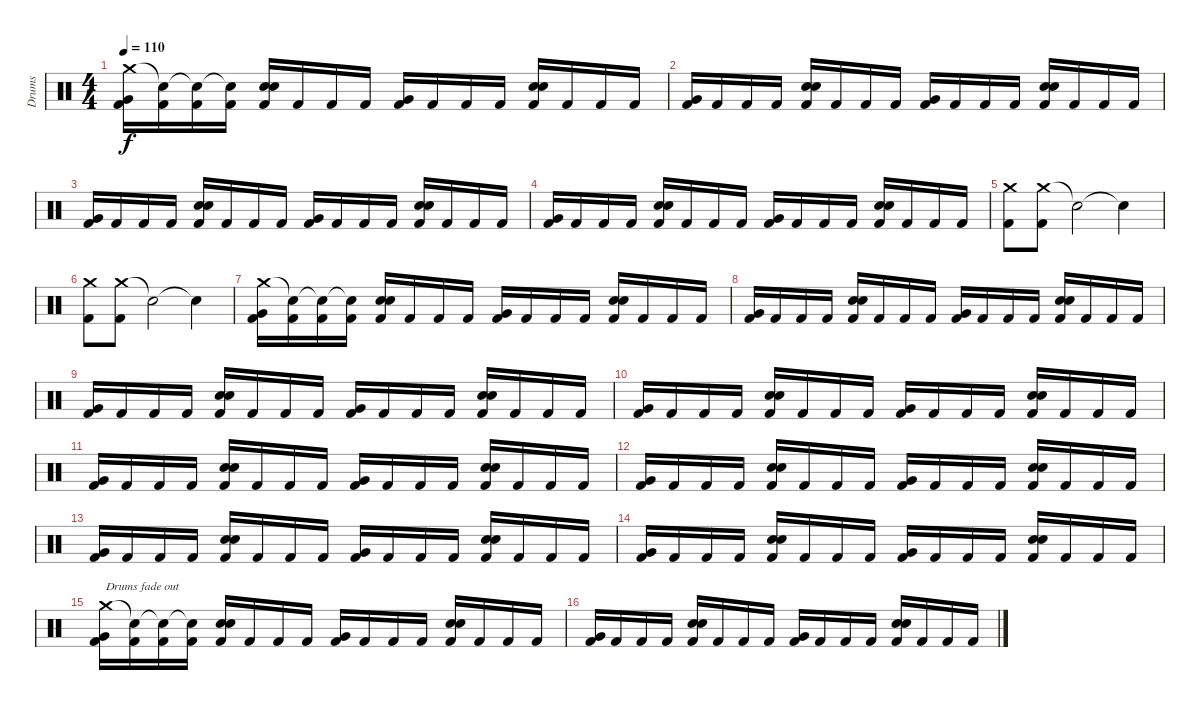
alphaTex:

\track ("Drums" "Drums") {instrument percussion}
\staff {score}
\articulation defaults
\ts (4 4)
\tempo 110
\clef neutral
\ks c
("Crash medium (hit)" "Very Low Tom (hit)" "Kick (hit) 2").16{dy f} ("Snare (hit)"{t} "Kick (hit) 2").16 ("Snare (hit)"{t} "Kick (hit) 2").16 ("Snare (hit)"{t} "Kick (hit) 2").16 ("Electric Snare (hit)" "Electric Snare (hit)" "Kick (hit) 2").16 "Kick (hit) 2".16 "Kick (hit) 2".16 "Kick (hit) 2".16 ("Very Low Tom (hit)" "Kick (hit) 2").16 "Kick (hit) 2".16 "Kick (hit) 2".16 "Kick (hit) 2".16 ("Electric Snare (hit)" "Electric Snare (hit)" "Kick (hit) 2").16 "Kick (hit) 2".16 "Kick (hit) 2".16 "Kick (hit) 2".16 |
("Very Low Tom (hit)" "Kick (hit) 2").16 "Kick (hit) 2".16 "Kick (hit) 2".16 "Kick (hit) 2".16 ("Electric Snare (hit)" "Electric Snare (hit)" "Kick (hit) 2").16 "Kick (hit) 2".16 "Kick (hit) 2".16 "Kick (hit) 2".16 ("Very Low Tom (hit)" "Kick (hit) 2").16 "Kick (hit) 2".16 "Kick (hit) 2".16 "Kick (hit) 2".16 ("Electric Snare (hit)" "Electric Snare (hit)" "Kick (hit) 2").16 "Kick (hit) 2".16 "Kick (hit) 2".16 "Kick (hit) 2".16 |
("Very Low Tom (hit)" "Kick (hit) 2").16 "Kick (hit) 2".16 "Kick (hit) 2".16 "Kick (hit) 2".16 ("Electric Snare (hit)" "Electric Snare (hit)" "Kick (hit) 2").16 "Kick (hit) 2".16 "Kick (hit) 2".16 "Kick (hit) 2".16 ("Very Low Tom (hit)" "Kick (hit) 2").16 "Kick (hit) 2".16 "Kick (hit) 2".16 "Kick (hit) 2".16 ("Electric Snare (hit)" "Electric Snare (hit)" "Kick (hit) 2").16 "Kick (hit) 2".16 "Kick (hit) 2".16 "Kick (hit) 2".16 |
("Very Low Tom (hit)" "Kick (hit) 2").16 "Kick (hit) 2".16 "Kick (hit) 2".16 "Kick (hit) 2".16 ("Electric Snare (hit)" "Electric Snare (hit)" "Kick (hit) 2").16 "Kick (hit) 2".16 "Kick (hit) 2".16 "Kick (hit) 2".16 ("Very Low Tom (hit)" "Kick (hit) 2").16 "Kick (hit) 2".16 "Kick (hit) 2".16 "Kick (hit) 2".16 ("Electric Snare (hit)" "Electric Snare (hit)" "Kick (hit) 2").16 "Kick (hit) 2".16 "Kick (hit) 2".16 "Kick (hit) 2".16 |
("Crash medium (hit)" "Kick (hit) 2").8 ("Crash medium (hit)" "Kick (hit) 2").8 "Snare (hit)"{t}.2 "Snare (hit)"{t}.4 |
("Crash medium (hit)" "Kick (hit) 2").8 ("Crash medium (hit)" "Kick (hit) 2").8 "Snare (hit)"{t}.2 "Snare (hit)"{t}.4 |
("Crash medium (hit)" "Very Low Tom (hit)" "Kick (hit) 2").16 ("Snare (hit)"{t} "Kick (hit) 2").16 ("Snare (hit)"{t} "Kick (hit) 2").16 ("Snare (hit)"{t} "Kick (hit) 2").16 ("Electric Snare (hit)" "Electric Snare (hit)" "Kick (hit) 2").16 "Kick (hit) 2".16 "Kick (hit) 2".16 "Kick (hit) 2".16 ("Very Low Tom (hit)" "Kick (hit) 2").16 "Kick (hit) 2".16 "Kick (hit) 2".16 "Kick (hit) 2".16 ("Electric Snare (hit)" "Electric Snare (hit)" "Kick (hit) 2").16 "Kick (hit) 2".16 "Kick (hit) 2".16 "Kick (hit) 2".16 |
("Very Low Tom (hit)" "Kick (hit) 2").16 "Kick (hit) 2".16 "Kick (hit) 2".16 "Kick (hit) 2".16 ("Electric Snare (hit)" "Electric Snare (hit)" "Kick (hit) 2").16 "Kick (hit) 2".16 "Kick (hit) 2".16 "Kick (hit) 2".16 ("Very Low Tom (hit)" "Kick (hit) 2").16 "Kick (hit) 2".16 "Kick (hit) 2".16 "Kick (hit) 2".16 ("Electric Snare (hit)" "Electric Snare (hit)" "Kick (hit) 2").16 "Kick (hit) 2".16 "Kick (hit) 2".16 "Kick (hit) 2".16 |
("Very Low Tom (hit)" "Kick (hit) 2").16 "Kick (hit) 2".16 "Kick (hit) 2".16 "Kick (hit) 2".16 ("Electric Snare (hit)" "Electric Snare (hit)" "Kick (hit) 2").16 "Kick (hit) 2".16 "Kick (hit) 2".16 "Kick (hit) 2".16 ("Very Low Tom (hit)" "Kick (hit) 2").16 "Kick (hit) 2".16 "Kick (hit) 2".16 "Kick (hit) 2".16 ("Electric Snare (hit)" "Electric Snare (hit)" "Kick (hit) 2").16 "Kick (hit) 2".16 "Kick (hit) 2".16 "Kick (hit) 2".16 |
("Very Low Tom (hit)" "Kick (hit) 2").16 "Kick (hit) 2".16 "Kick (hit) 2".16 "Kick (hit) 2".16 ("Electric Snare (hit)" "Electric Snare (hit)" "Kick (hit) 2").16 "Kick (hit) 2".16 "Kick (hit) 2".16 "Kick (hit) 2".16 ("Very Low Tom (hit)" "Kick (hit) 2").16 "Kick (hit) 2".16 "Kick (hit) 2".16 "Kick (hit) 2".16 ("Electric Snare (hit)" "Electric Snare (hit)" "Kick (hit) 2").16 "Kick (hit) 2".16 "Kick (hit) 2".16 "Kick (hit) 2".16 |
("Very Low Tom (hit)" "Kick (hit) 2").16 "Kick (hit) 2".16 "Kick (hit) 2".16 "Kick (hit) 2".16 ("Electric Snare (hit)" "Electric Snare (hit)" "Kick (hit) 2").16 "Kick (hit) 2".16 "Kick (hit) 2".16 "Kick (hit) 2".16 ("Very Low Tom (hit)" "Kick (hit) 2").16 "Kick (hit) 2".16 "Kick (hit) 2".16 "Kick (hit) 2".16 ("Electric Snare (hit)" "Electric Snare (hit)" "Kick (hit) 2").16 "Kick (hit) 2".16 "Kick (hit) 2".16 "Kick (hit) 2".16 |
("Very Low Tom (hit)" "Kick (hit) 2").16 "Kick (hit) 2".16 "Kick (hit) 2".16 "Kick (hit) 2".16 ("Electric Snare (hit)" "Electric Snare (hit)" "Kick (hit) 2").16 "Kick (hit) 2".16 "Kick (hit) 2".16 "Kick (hit) 2".16 ("Very Low Tom (hit)" "Kick (hit) 2").16 "Kick (hit) 2".16 "Kick (hit) 2".16 "Kick (hit) 2".16 ("Electric Snare (hit)" "Electric Snare (hit)" "Kick (hit) 2").16 "Kick (hit) 2".16 "Kick (hit) 2".16 "Kick (hit) 2".16 |
("Very Low Tom (hit)" "Kick (hit) 2").16 "Kick (hit) 2".16 "Kick (hit) 2".16 "Kick (hit) 2".16 ("Electric Snare (hit)" "Electric Snare (hit)" "Kick (hit) 2").16 "Kick (hit) 2".16 "Kick (hit) 2".16 "Kick (hit) 2".16 ("Very Low Tom (hit)" "Kick (hit) 2").16 "Kick (hit) 2".16 "Kick (hit) 2".16 "Kick (hit) 2".16 ("Electric Snare (hit)" "Electric Snare (hit)" "Kick (hit) 2").16 "Kick (hit) 2".16 "Kick (hit) 2".16 "Kick (hit) 2".16 |
("Very Low Tom (hit)" "Kick (hit) 2").16 "Kick (hit) 2".16 "Kick (hit) 2".16 "Kick (hit) 2".16 ("Electric Snare (hit)" "Electric Snare (hit)" "Kick (hit) 2").16 "Kick (hit) 2".16 "Kick (hit) 2".16 "Kick (hit) 2".16 ("Very Low Tom (hit)" "Kick (hit) 2").16 "Kick (hit) 2".16 "Kick (hit) 2".16 "Kick (hit) 2".16 ("Electric Snare (hit)" "Electric Snare (hit)" "Kick (hit) 2").16 "Kick (hit) 2".16 "Kick (hit) 2".16 "Kick (hit) 2".16 |
("Crash medium (hit)" "Very Low Tom (hit)" "Kick (hit) 2").16{txt "Drums fade out" volume 14} ("Snare (hit)"{t} "Kick (hit) 2").16 ("Snare (hit)"{t} "Kick (hit) 2").16 ("Snare (hit)"{t} "Kick (hit) 2").16 ("Electric Snare (hit)" "Electric Snare (hit)" "Kick (hit) 2").16 "Kick (hit) 2".16 "Kick (hit) 2".16 "Kick (hit) 2".16 ("Very Low Tom (hit)" "Kick (hit) 2").16{volume 13} "Kick (hit) 2".16 "Kick (hit) 2".16 "Kick (hit) 2".16 ("Electric Snare (hit)" "Electric Snare (hit)" "Kick (hit) 2").16 "Kick (hit) 2".16 "Kick (hit) 2".16 "Kick (hit) 2".16 |
("Very Low Tom (hit)" "Kick (hit) 2").16{volume 12} "Kick (hit) 2".16 "Kick (hit) 2".16 "Kick (hit) 2".16 ("Electric Snare (hit)" "Electric Snare (hit)" "Kick (hit) 2").16 "Kick (hit) 2".16 "Kick (hit) 2".16 "Kick (hit) 2".16 ("Very Low Tom (hit)" "Kick (hit) 2").16{volume 11} "Kick (hit) 2".16 "Kick (hit) 2".16 "Kick (hit) 2".16 ("Electric Snare (hit)" "Electric Snare (hit)" "Kick (hit) 2").16 "Kick (hit) 2".16 "Kick (hit) 2".16 "Kick (hit) 2".16
